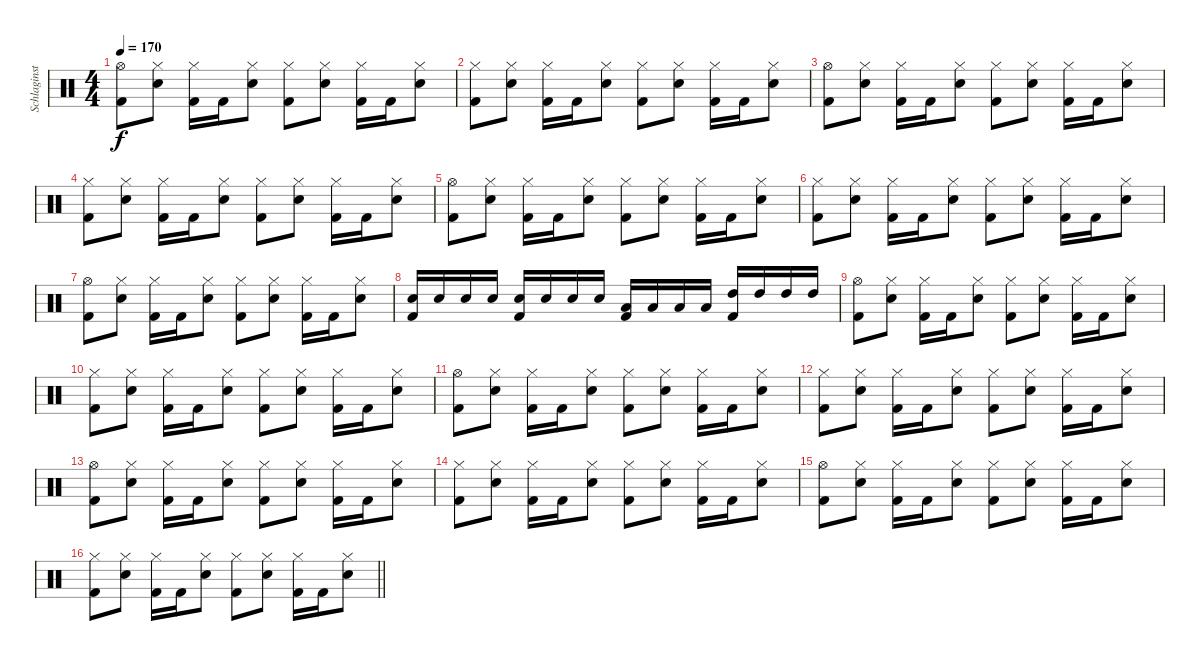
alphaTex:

\track ("Schlaginstrumente - Auswahl" "Schlaginst") {instrument percussion}
\staff {score}
\articulation defaults
\ts (4 4)
\tempo 170
\clef neutral
\ks c
("Hi-Hat (open)" "Kick (hit) 2").8{dy f} ("Hi-Hat (closed)" "Snare (hit) 2").8 ("Hi-Hat (closed)" "Kick (hit) 2").16 "Kick (hit) 2".16 ("Hi-Hat (closed)" "Snare (hit) 2").8 ("Hi-Hat (closed)" "Kick (hit) 2").8 ("Hi-Hat (closed)" "Snare (hit) 2").8 ("Hi-Hat (closed)" "Kick (hit) 2").16 "Kick (hit) 2".16 ("Hi-Hat (closed)" "Snare (hit) 2").8 |
("Hi-Hat (closed)" "Kick (hit) 2").8 ("Hi-Hat (closed)" "Snare (hit) 2").8 ("Hi-Hat (closed)" "Kick (hit) 2").16 "Kick (hit) 2".16 ("Hi-Hat (closed)" "Snare (hit) 2").8 ("Hi-Hat (closed)" "Kick (hit) 2").8 ("Hi-Hat (closed)" "Snare (hit) 2").8 ("Hi-Hat (closed)" "Kick (hit) 2").16 "Kick (hit) 2".16 ("Hi-Hat (closed)" "Snare (hit) 2").8 |
("Hi-Hat (open)" "Kick (hit) 2").8 ("Hi-Hat (closed)" "Snare (hit) 2").8 ("Hi-Hat (closed)" "Kick (hit) 2").16 "Kick (hit) 2".16 ("Hi-Hat (closed)" "Snare (hit) 2").8 ("Hi-Hat (closed)" "Kick (hit) 2").8 ("Hi-Hat (closed)" "Snare (hit) 2").8 ("Hi-Hat (closed)" "Kick (hit) 2").16 "Kick (hit) 2".16 ("Hi-Hat (closed)" "Snare (hit) 2").8 |
("Hi-Hat (closed)" "Kick (hit) 2").8 ("Hi-Hat (closed)" "Snare (hit) 2").8 ("Hi-Hat (closed)" "Kick (hit) 2").16 "Kick (hit) 2".16 ("Hi-Hat (closed)" "Snare (hit) 2").8 ("Hi-Hat (closed)" "Kick (hit) 2").8 ("Hi-Hat (closed)" "Snare (hit) 2").8 ("Hi-Hat (closed)" "Kick (hit) 2").16 "Kick (hit) 2".16 ("Hi-Hat (closed)" "Snare (hit) 2").8 |
("Hi-Hat (open)" "Kick (hit) 2").8 ("Hi-Hat (closed)" "Snare (hit) 2").8 ("Hi-Hat (closed)" "Kick (hit) 2").16 "Kick (hit) 2".16 ("Hi-Hat (closed)" "Snare (hit) 2").8 ("Hi-Hat (closed)" "Kick (hit) 2").8 ("Hi-Hat (closed)" "Snare (hit) 2").8 ("Hi-Hat (closed)" "Kick (hit) 2").16 "Kick (hit) 2".16 ("Hi-Hat (closed)" "Snare (hit) 2").8 |
("Hi-Hat (closed)" "Kick (hit) 2").8 ("Hi-Hat (closed)" "Snare (hit) 2").8 ("Hi-Hat (closed)" "Kick (hit) 2").16 "Kick (hit) 2".16 ("Hi-Hat (closed)" "Snare (hit) 2").8 ("Hi-Hat (closed)" "Kick (hit) 2").8 ("Hi-Hat (closed)" "Snare (hit) 2").8 ("Hi-Hat (closed)" "Kick (hit) 2").16 "Kick (hit) 2".16 ("Hi-Hat (closed)" "Snare (hit) 2").8 |
("Hi-Hat (open)" "Kick (hit) 2").8 ("Hi-Hat (closed)" "Snare (hit) 2").8 ("Hi-Hat (closed)" "Kick (hit) 2").16 "Kick (hit) 2".16 ("Hi-Hat (closed)" "Snare (hit) 2").8 ("Hi-Hat (closed)" "Kick (hit) 2").8 ("Hi-Hat (closed)" "Snare (hit) 2").8 ("Hi-Hat (closed)" "Kick (hit) 2").16 "Kick (hit) 2".16 ("Hi-Hat (closed)" "Snare (hit) 2").8 |
("Snare (hit) 2" "Kick (hit) 2").16 "Snare (hit) 2".16 "Snare (hit) 2".16 "Snare (hit) 2".16 ("Snare (hit) 2" "Kick (hit) 2").16 "Snare (hit) 2".16 "Snare (hit) 2".16 "Snare (hit) 2".16 ("Low Tom (hit)" "Kick (hit) 2").16 "Low Tom (hit)".16 "Low Tom (hit)".16 "Low Tom (hit)".16 ("High Tom (hit)" "Kick (hit) 2").16 "High Tom (hit)".16 "High Tom (hit)".16 "High Tom (hit)".16 |
("Hi-Hat (open)" "Kick (hit) 2").8 ("Hi-Hat (closed)" "Snare (hit) 2").8 ("Hi-Hat (closed)" "Kick (hit) 2").16 "Kick (hit) 2".16 ("Hi-Hat (closed)" "Snare (hit) 2").8 ("Hi-Hat (closed)" "Kick (hit) 2").8 ("Hi-Hat (closed)" "Snare (hit) 2").8 ("Hi-Hat (closed)" "Kick (hit) 2").16 "Kick (hit) 2".16 ("Hi-Hat (closed)" "Snare (hit) 2").8 |
("Hi-Hat (closed)" "Kick (hit) 2").8 ("Hi-Hat (closed)" "Snare (hit) 2").8 ("Hi-Hat (closed)" "Kick (hit) 2").16 "Kick (hit) 2".16 ("Hi-Hat (closed)" "Snare (hit) 2").8 ("Hi-Hat (closed)" "Kick (hit) 2").8 ("Hi-Hat (closed)" "Snare (hit) 2").8 ("Hi-Hat (closed)" "Kick (hit) 2").16 "Kick (hit) 2".16 ("Hi-Hat (closed)" "Snare (hit) 2").8 |
("Hi-Hat (open)" "Kick (hit) 2").8 ("Hi-Hat (closed)" "Snare (hit) 2").8 ("Hi-Hat (closed)" "Kick (hit) 2").16 "Kick (hit) 2".16 ("Hi-Hat (closed)" "Snare (hit) 2").8 ("Hi-Hat (closed)" "Kick (hit) 2").8 ("Hi-Hat (closed)" "Snare (hit) 2").8 ("Hi-Hat (closed)" "Kick (hit) 2").16 "Kick (hit) 2".16 ("Hi-Hat (closed)" "Snare (hit) 2").8 |
("Hi-Hat (closed)" "Kick (hit) 2").8 ("Hi-Hat (closed)" "Snare (hit) 2").8 ("Hi-Hat (closed)" "Kick (hit) 2").16 "Kick (hit) 2".16 ("Hi-Hat (closed)" "Snare (hit) 2").8 ("Hi-Hat (closed)" "Kick (hit) 2").8 ("Hi-Hat (closed)" "Snare (hit) 2").8 ("Hi-Hat (closed)" "Kick (hit) 2").16 "Kick (hit) 2".16 ("Hi-Hat (closed)" "Snare (hit) 2").8 |
("Hi-Hat (open)" "Kick (hit) 2").8 ("Hi-Hat (closed)" "Snare (hit) 2").8 ("Hi-Hat (closed)" "Kick (hit) 2").16 "Kick (hit) 2".16 ("Hi-Hat (closed)" "Snare (hit) 2").8 ("Hi-Hat (closed)" "Kick (hit) 2").8 ("Hi-Hat (closed)" "Snare (hit) 2").8 ("Hi-Hat (closed)" "Kick (hit) 2").16 "Kick (hit) 2".16 ("Hi-Hat (closed)" "Snare (hit) 2").8 |
("Hi-Hat (closed)" "Kick (hit) 2").8 ("Hi-Hat (closed)" "Snare (hit) 2").8 ("Hi-Hat (closed)" "Kick (hit) 2").16 "Kick (hit) 2".16 ("Hi-Hat (closed)" "Snare (hit) 2").8 ("Hi-Hat (closed)" "Kick (hit) 2").8 ("Hi-Hat (closed)" "Snare (hit) 2").8 ("Hi-Hat (closed)" "Kick (hit) 2").16 "Kick (hit) 2".16 ("Hi-Hat (closed)" "Snare (hit) 2").8 |
("Hi-Hat (open)" "Kick (hit) 2").8 ("Hi-Hat (closed)" "Snare (hit) 2").8 ("Hi-Hat (closed)" "Kick (hit) 2").16 "Kick (hit) 2".16 ("Hi-Hat (closed)" "Snare (hit) 2").8 ("Hi-Hat (closed)" "Kick (hit) 2").8 ("Hi-Hat (closed)" "Snare (hit) 2").8 ("Hi-Hat (closed)" "Kick (hit) 2").16 "Kick (hit) 2".16 ("Hi-Hat (closed)" "Snare (hit) 2").8 |
\barLineRight lightlight
("Hi-Hat (closed)" "Kick (hit) 2").8 ("Hi-Hat (closed)" "Snare (hit) 2").8 ("Hi-Hat (closed)" "Kick (hit) 2").16 "Kick (hit) 2".16 ("Hi-Hat (closed)" "Snare (hit) 2").8 ("Hi-Hat (closed)" "Kick (hit) 2").8 ("Hi-Hat (closed)" "Snare (hit) 2").8 ("Hi-Hat (closed)" "Kick (hit) 2").16 "Kick (hit) 2".16 ("Hi-Hat (closed)" "Snare (hit) 2").8
